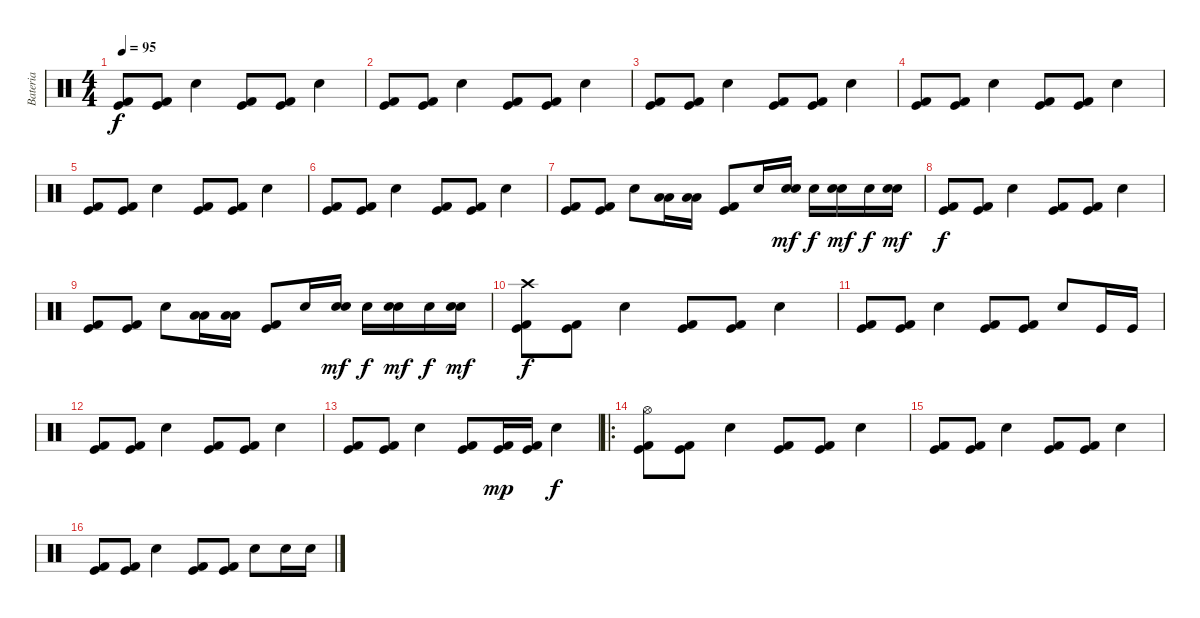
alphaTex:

\track ("Bateria" "Bateria") {instrument percussion}
\staff {score}
\articulation defaults
\ts (4 4)
\tempo 95
\clef neutral
\ks c
("Kick (hit)" "Kick (hit) 2").8{dy f} ("Kick (hit)" "Kick (hit) 2").8 "Electric Snare (hit)".4 ("Kick (hit)" "Kick (hit) 2").8 ("Kick (hit)" "Kick (hit) 2").8 "Electric Snare (hit)".4 |
("Kick (hit)" "Kick (hit) 2").8 ("Kick (hit)" "Kick (hit) 2").8 "Electric Snare (hit)".4 ("Kick (hit)" "Kick (hit) 2").8 ("Kick (hit)" "Kick (hit) 2").8 "Electric Snare (hit)".4 |
("Kick (hit)" "Kick (hit) 2").8 ("Kick (hit)" "Kick (hit) 2").8 "Electric Snare (hit)".4 ("Kick (hit)" "Kick (hit) 2").8 ("Kick (hit)" "Kick (hit) 2").8 "Electric Snare (hit)".4 |
("Kick (hit)" "Kick (hit) 2").8 ("Kick (hit)" "Kick (hit) 2").8 "Electric Snare (hit)".4 ("Kick (hit)" "Kick (hit) 2").8 ("Kick (hit)" "Kick (hit) 2").8 "Electric Snare (hit)".4 |
("Kick (hit)" "Kick (hit) 2").8 ("Kick (hit)" "Kick (hit) 2").8 "Electric Snare (hit)".4 ("Kick (hit)" "Kick (hit) 2").8 ("Kick (hit)" "Kick (hit) 2").8 "Electric Snare (hit)".4 |
("Kick (hit)" "Kick (hit) 2").8 ("Kick (hit)" "Kick (hit) 2").8 "Electric Snare (hit)".4 ("Kick (hit)" "Kick (hit) 2").8 ("Kick (hit)" "Kick (hit) 2").8 "Electric Snare (hit)".4 |
("Kick (hit)" "Kick (hit) 2").8 ("Kick (hit)" "Kick (hit) 2").8 "Electric Snare (hit)".8 ("Low Tom (hit)" "Low Tom (hit)").16 ("Low Tom (hit)" "Low Tom (hit)").16 ("Kick (hit)" "Kick (hit) 2").8 "Electric Snare (hit)".16 ("Snare (hit) 2" "Electric Snare (hit)").16{dy mf} "Electric Snare (hit)".16{dy f} ("Snare (hit) 2" "Electric Snare (hit)").16{dy mf} "Electric Snare (hit)".16{dy f} ("Snare (hit) 2" "Electric Snare (hit)").16{dy mf} |
("Kick (hit)" "Kick (hit) 2").8{dy f} ("Kick (hit)" "Kick (hit) 2").8 "Electric Snare (hit)".4 ("Kick (hit)" "Kick (hit) 2").8 ("Kick (hit)" "Kick (hit) 2").8 "Electric Snare (hit)".4 |
("Kick (hit)" "Kick (hit) 2").8 ("Kick (hit)" "Kick (hit) 2").8 "Electric Snare (hit)".8 ("Low Tom (hit)" "Low Tom (hit)").16 ("Low Tom (hit)" "Low Tom (hit)").16 ("Kick (hit)" "Kick (hit) 2").8 "Electric Snare (hit)".16 ("Snare (hit) 2" "Electric Snare (hit)").16{dy mf} "Electric Snare (hit)".16{dy f} ("Snare (hit) 2" "Electric Snare (hit)").16{dy mf} "Electric Snare (hit)".16{dy f} ("Snare (hit) 2" "Electric Snare (hit)").16{dy mf} |
("Crash high (hit)" "Kick (hit)" "Kick (hit) 2").8{dy f} ("Kick (hit)" "Kick (hit) 2").8 "Electric Snare (hit)".4 ("Kick (hit)" "Kick (hit) 2").8 ("Kick (hit)" "Kick (hit) 2").8 "Electric Snare (hit)".4 |
("Kick (hit)" "Kick (hit) 2").8 ("Kick (hit)" "Kick (hit) 2").8 "Electric Snare (hit)".4 ("Kick (hit)" "Kick (hit) 2").8 ("Kick (hit)" "Kick (hit) 2").8 "Electric Snare (hit)".8 "Kick (hit)".16 "Kick (hit)".16 |
("Kick (hit)" "Kick (hit) 2").8 ("Kick (hit)" "Kick (hit) 2").8 "Electric Snare (hit)".4 ("Kick (hit)" "Kick (hit) 2").8 ("Kick (hit)" "Kick (hit) 2").8 "Electric Snare (hit)".4 |
("Kick (hit)" "Kick (hit) 2").8 ("Kick (hit)" "Kick (hit) 2").8 "Electric Snare (hit)".4 ("Kick (hit)" "Kick (hit) 2").8 ("Kick (hit)" "Kick (hit) 2").16{dy mp} ("Kick (hit)" "Kick (hit) 2").16 "Electric Snare (hit)".4{dy f} |
\ro
("Hi-Hat (open)" "Kick (hit)" "Kick (hit) 2").8 ("Kick (hit)" "Kick (hit) 2").8 "Electric Snare (hit)".4 ("Kick (hit)" "Kick (hit) 2").8 ("Kick (hit)" "Kick (hit) 2").8 "Electric Snare (hit)".4 |
("Kick (hit)" "Kick (hit) 2").8 ("Kick (hit)" "Kick (hit) 2").8 "Electric Snare (hit)".4 ("Kick (hit)" "Kick (hit) 2").8 ("Kick (hit)" "Kick (hit) 2").8 "Electric Snare (hit)".4 |
("Kick (hit)" "Kick (hit) 2").8 ("Kick (hit)" "Kick (hit) 2").8 "Electric Snare (hit)".4 ("Kick (hit)" "Kick (hit) 2").8 ("Kick (hit)" "Kick (hit) 2").8 "Electric Snare (hit)".8 "Electric Snare (hit)".16 "Electric Snare (hit)".16
